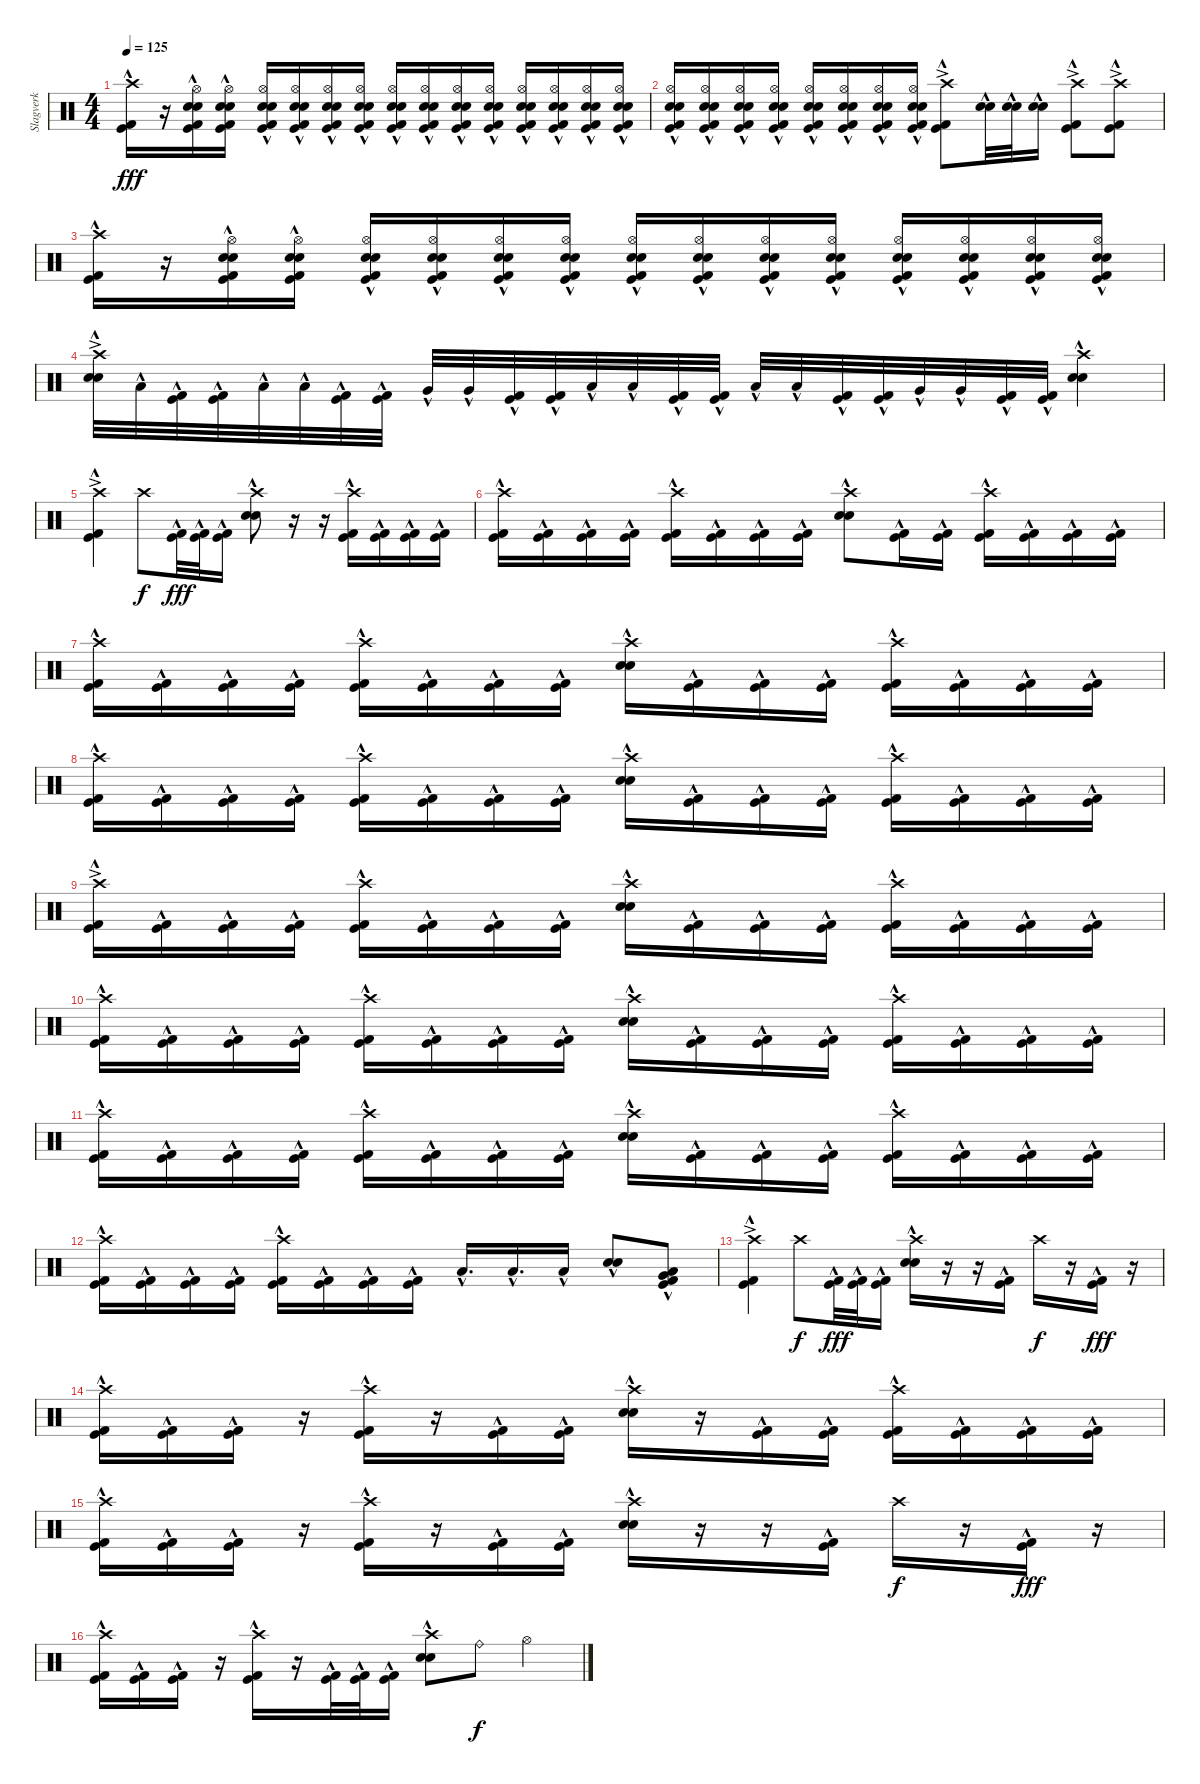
\track ("Slagverk" "Slagverk") {instrument percussion}
\staff {score}
\articulation defaults
\ts (4 4)
\tempo 125
\clef neutral
\ks c
("Crash high (hit)"{hac} "Kick (hit)"{hac} "Kick (hit) 2"{hac}).16{dy fff} r.16 ("Hi-Hat (open)" "Electric Snare (hit)"{hac} "Snare (hit) 2" "Kick (hit)"{hac} "Kick (hit) 2"{hac}).16 ("Hi-Hat (open)" "Electric Snare (hit)"{hac} "Snare (hit) 2" "Kick (hit)"{hac} "Kick (hit) 2"{hac}).16 ("Hi-Hat (open)" "Electric Snare (hit)"{hac} "Snare (hit) 2" "Kick (hit)"{hac} "Kick (hit) 2"{hac}).16 ("Hi-Hat (open)" "Electric Snare (hit)"{hac} "Snare (hit) 2" "Kick (hit)"{hac} "Kick (hit) 2"{hac}).16 ("Hi-Hat (open)" "Electric Snare (hit)"{hac} "Snare (hit) 2" "Kick (hit)"{hac} "Kick (hit) 2"{hac}).16 ("Hi-Hat (open)" "Electric Snare (hit)"{hac} "Snare (hit) 2" "Kick (hit)"{hac} "Kick (hit) 2"{hac}).16 ("Hi-Hat (open)" "Electric Snare (hit)"{hac} "Snare (hit) 2" "Kick (hit)"{hac} "Kick (hit) 2"{hac}).16 ("Hi-Hat (open)" "Electric Snare (hit)"{hac} "Snare (hit) 2" "Kick (hit)"{hac} "Kick (hit) 2"{hac}).16 ("Hi-Hat (open)" "Electric Snare (hit)"{hac} "Snare (hit) 2" "Kick (hit)"{hac} "Kick (hit) 2"{hac}).16 ("Hi-Hat (open)" "Electric Snare (hit)"{hac} "Snare (hit) 2" "Kick (hit)"{hac} "Kick (hit) 2"{hac}).16 ("Hi-Hat (open)" "Electric Snare (hit)"{hac} "Snare (hit) 2" "Kick (hit)"{hac} "Kick (hit) 2"{hac}).16 ("Hi-Hat (open)" "Electric Snare (hit)"{hac} "Snare (hit) 2" "Kick (hit)"{hac} "Kick (hit) 2"{hac}).16 ("Hi-Hat (open)" "Electric Snare (hit)"{hac} "Snare (hit) 2" "Kick (hit)"{hac} "Kick (hit) 2"{hac}).16 ("Hi-Hat (open)" "Electric Snare (hit)"{hac} "Snare (hit) 2" "Kick (hit)"{hac} "Kick (hit) 2"{hac}).16 |
("Hi-Hat (open)" "Electric Snare (hit)"{hac} "Snare (hit) 2" "Kick (hit)"{hac} "Kick (hit) 2"{hac}).16 ("Hi-Hat (open)" "Electric Snare (hit)"{hac} "Snare (hit) 2" "Kick (hit)"{hac} "Kick (hit) 2"{hac}).16 ("Hi-Hat (open)" "Electric Snare (hit)"{hac} "Snare (hit) 2" "Kick (hit)"{hac} "Kick (hit) 2"{hac}).16 ("Hi-Hat (open)" "Electric Snare (hit)"{hac} "Snare (hit) 2" "Kick (hit)"{hac} "Kick (hit) 2"{hac}).16 ("Hi-Hat (open)" "Electric Snare (hit)"{hac} "Snare (hit) 2" "Kick (hit)"{hac} "Kick (hit) 2"{hac}).16 ("Hi-Hat (open)" "Electric Snare (hit)"{hac} "Snare (hit) 2" "Kick (hit)"{hac} "Kick (hit) 2"{hac}).16 ("Hi-Hat (open)" "Electric Snare (hit)"{hac} "Snare (hit) 2" "Kick (hit)"{hac} "Kick (hit) 2"{hac}).16 ("Hi-Hat (open)" "Electric Snare (hit)"{hac} "Snare (hit) 2" "Kick (hit)"{hac} "Kick (hit) 2"{hac}).16 ("Crash high (hit)"{ac} "Kick (hit)"{hac} "Kick (hit) 2"{hac}).8 ("Electric Snare (hit)"{hac} "Snare (hit) 2").32 ("Electric Snare (hit)"{hac} "Snare (hit) 2").32 ("Electric Snare (hit)"{hac} "Snare (hit) 2").16 ("Crash high (hit)"{ac} "Kick (hit)"{hac} "Kick (hit) 2"{hac}).8 ("Crash high (hit)"{ac} "Kick (hit)"{hac} "Kick (hit) 2"{hac}).8 |
("Crash high (hit)"{hac} "Kick (hit)"{hac} "Kick (hit) 2"{hac}).16 r.16 ("Hi-Hat (open)" "Electric Snare (hit)"{hac} "Snare (hit) 2" "Kick (hit)"{hac} "Kick (hit) 2"{hac}).16 ("Hi-Hat (open)" "Electric Snare (hit)"{hac} "Snare (hit) 2" "Kick (hit)"{hac} "Kick (hit) 2"{hac}).16 ("Hi-Hat (open)" "Electric Snare (hit)"{hac} "Snare (hit) 2" "Kick (hit)"{hac} "Kick (hit) 2"{hac}).16 ("Hi-Hat (open)" "Electric Snare (hit)"{hac} "Snare (hit) 2" "Kick (hit)"{hac} "Kick (hit) 2"{hac}).16 ("Hi-Hat (open)" "Electric Snare (hit)"{hac} "Snare (hit) 2" "Kick (hit)"{hac} "Kick (hit) 2"{hac}).16 ("Hi-Hat (open)" "Electric Snare (hit)"{hac} "Snare (hit) 2" "Kick (hit)"{hac} "Kick (hit) 2"{hac}).16 ("Hi-Hat (open)" "Electric Snare (hit)"{hac} "Snare (hit) 2" "Kick (hit)"{hac} "Kick (hit) 2"{hac}).16 ("Hi-Hat (open)" "Electric Snare (hit)"{hac} "Snare (hit) 2" "Kick (hit)"{hac} "Kick (hit) 2"{hac}).16 ("Hi-Hat (open)" "Electric Snare (hit)"{hac} "Snare (hit) 2" "Kick (hit)"{hac} "Kick (hit) 2"{hac}).16 ("Hi-Hat (open)" "Electric Snare (hit)"{hac} "Snare (hit) 2" "Kick (hit)"{hac} "Kick (hit) 2"{hac}).16 ("Hi-Hat (open)" "Electric Snare (hit)"{hac} "Snare (hit) 2" "Kick (hit)"{hac} "Kick (hit) 2"{hac}).16 ("Hi-Hat (open)" "Electric Snare (hit)"{hac} "Snare (hit) 2" "Kick (hit)"{hac} "Kick (hit) 2"{hac}).16 ("Hi-Hat (open)" "Electric Snare (hit)"{hac} "Snare (hit) 2" "Kick (hit)"{hac} "Kick (hit) 2"{hac}).16 ("Hi-Hat (open)" "Electric Snare (hit)"{hac} "Snare (hit) 2" "Kick (hit)"{hac} "Kick (hit) 2"{hac}).16 |
("Crash high (hit)"{ac} "Electric Snare (hit)"{hac} "Snare (hit) 2").32 "Low Tom (hit)"{hac}.32 ("Kick (hit)"{hac} "Kick (hit) 2"{hac}).32 ("Kick (hit)"{hac} "Kick (hit) 2"{hac}).32 "Low Tom (hit)"{hac}.32 "Low Tom (hit)"{hac}.32 ("Kick (hit)"{hac} "Kick (hit) 2"{hac}).32 ("Kick (hit)"{hac} "Kick (hit) 2"{hac}).32 "Very Low Tom (hit)"{hac}.32 "Very Low Tom (hit)"{hac}.32 ("Kick (hit)"{hac} "Kick (hit) 2"{hac}).32 ("Kick (hit)"{hac} "Kick (hit) 2"{hac}).32 "Low Tom (hit)"{hac}.32 "Low Tom (hit)"{hac}.32 ("Kick (hit)"{hac} "Kick (hit) 2"{hac}).32 ("Kick (hit)"{hac} "Kick (hit) 2"{hac}).32 "Low Tom (hit)"{hac}.32 "Low Tom (hit)"{hac}.32 ("Kick (hit)"{hac} "Kick (hit) 2"{hac}).32 ("Kick (hit)"{hac} "Kick (hit) 2"{hac}).32 "Very Low Tom (hit)"{hac}.32 "Very Low Tom (hit)"{hac}.32 ("Kick (hit)"{hac} "Kick (hit) 2"{hac}).32 ("Kick (hit)"{hac} "Kick (hit) 2"{hac}).32 ("Crash high (hit)" "Electric Snare (hit)"{hac} "Snare (hit) 2").4 |
("Crash high (hit)"{ac} "Kick (hit)"{hac} "Kick (hit) 2"{hac}).4 "Crash high (hit)".8{dy f} ("Kick (hit)"{hac} "Kick (hit) 2"{hac}).32{dy fff} ("Kick (hit)"{hac} "Kick (hit) 2"{hac}).32 ("Kick (hit)"{hac} "Kick (hit) 2"{hac}).16 ("Crash high (hit)" "Electric Snare (hit)"{hac} "Snare (hit) 2").8 r.16 r.16 ("Crash high (hit)" "Kick (hit)"{hac} "Kick (hit) 2"{hac}).16 ("Kick (hit)"{hac} "Kick (hit) 2"{hac}).16 ("Kick (hit)"{hac} "Kick (hit) 2"{hac}).16 ("Kick (hit)"{hac} "Kick (hit) 2"{hac}).16 |
("Crash high (hit)" "Kick (hit)"{hac} "Kick (hit) 2"{hac}).16 ("Kick (hit)"{hac} "Kick (hit) 2"{hac}).16 ("Kick (hit)"{hac} "Kick (hit) 2"{hac}).16 ("Kick (hit)"{hac} "Kick (hit) 2"{hac}).16 ("Crash high (hit)" "Kick (hit)"{hac} "Kick (hit) 2"{hac}).16 ("Kick (hit)"{hac} "Kick (hit) 2"{hac}).16 ("Kick (hit)"{hac} "Kick (hit) 2"{hac}).16 ("Kick (hit)"{hac} "Kick (hit) 2"{hac}).16 ("Crash high (hit)" "Electric Snare (hit)"{hac} "Snare (hit) 2").8 ("Kick (hit)"{hac} "Kick (hit) 2"{hac}).16 ("Kick (hit)"{hac} "Kick (hit) 2"{hac}).16 ("Crash high (hit)" "Kick (hit)"{hac} "Kick (hit) 2"{hac}).16 ("Kick (hit)"{hac} "Kick (hit) 2"{hac}).16 ("Kick (hit)"{hac} "Kick (hit) 2"{hac}).16 ("Kick (hit)"{hac} "Kick (hit) 2"{hac}).16 |
("Crash high (hit)" "Kick (hit)"{hac} "Kick (hit) 2"{hac}).16 ("Kick (hit)"{hac} "Kick (hit) 2"{hac}).16 ("Kick (hit)"{hac} "Kick (hit) 2"{hac}).16 ("Kick (hit)"{hac} "Kick (hit) 2"{hac}).16 ("Crash high (hit)" "Kick (hit)"{hac} "Kick (hit) 2"{hac}).16 ("Kick (hit)"{hac} "Kick (hit) 2"{hac}).16 ("Kick (hit)"{hac} "Kick (hit) 2"{hac}).16 ("Kick (hit)"{hac} "Kick (hit) 2"{hac}).16 ("Crash high (hit)" "Electric Snare (hit)"{hac} "Snare (hit) 2").16 ("Kick (hit)"{hac} "Kick (hit) 2"{hac}).16 ("Kick (hit)"{hac} "Kick (hit) 2"{hac}).16 ("Kick (hit)"{hac} "Kick (hit) 2"{hac}).16 ("Crash high (hit)" "Kick (hit)"{hac} "Kick (hit) 2"{hac}).16 ("Kick (hit)"{hac} "Kick (hit) 2"{hac}).16 ("Kick (hit)"{hac} "Kick (hit) 2"{hac}).16 ("Kick (hit)"{hac} "Kick (hit) 2"{hac}).16 |
("Crash high (hit)" "Kick (hit)"{hac} "Kick (hit) 2"{hac}).16 ("Kick (hit)"{hac} "Kick (hit) 2"{hac}).16 ("Kick (hit)"{hac} "Kick (hit) 2"{hac}).16 ("Kick (hit)"{hac} "Kick (hit) 2"{hac}).16 ("Crash high (hit)" "Kick (hit)"{hac} "Kick (hit) 2"{hac}).16 ("Kick (hit)"{hac} "Kick (hit) 2"{hac}).16 ("Kick (hit)"{hac} "Kick (hit) 2"{hac}).16 ("Kick (hit)"{hac} "Kick (hit) 2"{hac}).16 ("Crash high (hit)" "Electric Snare (hit)"{hac} "Snare (hit) 2").16 ("Kick (hit)"{hac} "Kick (hit) 2"{hac}).16 ("Kick (hit)"{hac} "Kick (hit) 2"{hac}).16 ("Kick (hit)"{hac} "Kick (hit) 2"{hac}).16 ("Crash high (hit)" "Kick (hit)"{hac} "Kick (hit) 2"{hac}).16 ("Kick (hit)"{hac} "Kick (hit) 2"{hac}).16 ("Kick (hit)"{hac} "Kick (hit) 2"{hac}).16 ("Kick (hit)"{hac} "Kick (hit) 2"{hac}).16 |
("Crash high (hit)"{ac} "Kick (hit)"{hac} "Kick (hit) 2"{hac}).16 ("Kick (hit)"{hac} "Kick (hit) 2"{hac}).16 ("Kick (hit)"{hac} "Kick (hit) 2"{hac}).16 ("Kick (hit)"{hac} "Kick (hit) 2"{hac}).16 ("Crash high (hit)" "Kick (hit)"{hac} "Kick (hit) 2"{hac}).16 ("Kick (hit)"{hac} "Kick (hit) 2"{hac}).16 ("Kick (hit)"{hac} "Kick (hit) 2"{hac}).16 ("Kick (hit)"{hac} "Kick (hit) 2"{hac}).16 ("Crash high (hit)" "Electric Snare (hit)"{hac} "Snare (hit) 2").16 ("Kick (hit)"{hac} "Kick (hit) 2"{hac}).16 ("Kick (hit)"{hac} "Kick (hit) 2"{hac}).16 ("Kick (hit)"{hac} "Kick (hit) 2"{hac}).16 ("Crash high (hit)" "Kick (hit)"{hac} "Kick (hit) 2"{hac}).16 ("Kick (hit)"{hac} "Kick (hit) 2"{hac}).16 ("Kick (hit)"{hac} "Kick (hit) 2"{hac}).16 ("Kick (hit)"{hac} "Kick (hit) 2"{hac}).16 |
("Crash high (hit)" "Kick (hit)"{hac} "Kick (hit) 2"{hac}).16 ("Kick (hit)"{hac} "Kick (hit) 2"{hac}).16 ("Kick (hit)"{hac} "Kick (hit) 2"{hac}).16 ("Kick (hit)"{hac} "Kick (hit) 2"{hac}).16 ("Crash high (hit)" "Kick (hit)"{hac} "Kick (hit) 2"{hac}).16 ("Kick (hit)"{hac} "Kick (hit) 2"{hac}).16 ("Kick (hit)"{hac} "Kick (hit) 2"{hac}).16 ("Kick (hit)"{hac} "Kick (hit) 2"{hac}).16 ("Crash high (hit)" "Electric Snare (hit)"{hac} "Snare (hit) 2").16 ("Kick (hit)"{hac} "Kick (hit) 2"{hac}).16 ("Kick (hit)"{hac} "Kick (hit) 2"{hac}).16 ("Kick (hit)"{hac} "Kick (hit) 2"{hac}).16 ("Crash high (hit)" "Kick (hit)"{hac} "Kick (hit) 2"{hac}).16 ("Kick (hit)"{hac} "Kick (hit) 2"{hac}).16 ("Kick (hit)"{hac} "Kick (hit) 2"{hac}).16 ("Kick (hit)"{hac} "Kick (hit) 2"{hac}).16 |
("Crash high (hit)" "Kick (hit)"{hac} "Kick (hit) 2"{hac}).16 ("Kick (hit)"{hac} "Kick (hit) 2"{hac}).16 ("Kick (hit)"{hac} "Kick (hit) 2"{hac}).16 ("Kick (hit)"{hac} "Kick (hit) 2"{hac}).16 ("Crash high (hit)" "Kick (hit)"{hac} "Kick (hit) 2"{hac}).16 ("Kick (hit)"{hac} "Kick (hit) 2"{hac}).16 ("Kick (hit)"{hac} "Kick (hit) 2"{hac}).16 ("Kick (hit)"{hac} "Kick (hit) 2"{hac}).16 ("Crash high (hit)" "Electric Snare (hit)"{hac} "Snare (hit) 2").16 ("Kick (hit)"{hac} "Kick (hit) 2"{hac}).16 ("Kick (hit)"{hac} "Kick (hit) 2"{hac}).16 ("Kick (hit)"{hac} "Kick (hit) 2"{hac}).16 ("Crash high (hit)" "Kick (hit)"{hac} "Kick (hit) 2"{hac}).16 ("Kick (hit)"{hac} "Kick (hit) 2"{hac}).16 ("Kick (hit)"{hac} "Kick (hit) 2"{hac}).16 ("Kick (hit)"{hac} "Kick (hit) 2"{hac}).16 |
("Crash high (hit)" "Kick (hit)"{hac} "Kick (hit) 2"{hac}).16 ("Kick (hit)"{hac} "Kick (hit) 2"{hac}).16 ("Kick (hit)"{hac} "Kick (hit) 2"{hac}).16 ("Kick (hit)"{hac} "Kick (hit) 2"{hac}).16 ("Crash high (hit)" "Kick (hit)"{hac} "Kick (hit) 2"{hac}).16 ("Kick (hit)"{hac} "Kick (hit) 2"{hac}).16 ("Kick (hit)"{hac} "Kick (hit) 2"{hac}).16 ("Kick (hit)"{hac} "Kick (hit) 2"{hac}).16 "Low Tom (hit)"{hac}.16{d} "Low Tom (hit)"{hac}.16{d} "Low Tom (hit)"{hac}.16 ("Electric Snare (hit)"{hac} "Snare (hit) 2").8 ("Very Low Tom (hit)"{hac} "Low Floor Tom (hit)"{hac} "Kick (hit)"{hac} "Kick (hit) 2"{hac}).8 |
("Crash high (hit)"{ac} "Kick (hit)"{hac} "Kick (hit) 2"{hac}).4 "Crash high (hit)".8{dy f} ("Kick (hit)"{hac} "Kick (hit) 2"{hac}).32{dy fff} ("Kick (hit)"{hac} "Kick (hit) 2"{hac}).32 ("Kick (hit)"{hac} "Kick (hit) 2"{hac}).16 ("Crash high (hit)" "Electric Snare (hit)"{hac} "Snare (hit) 2").16 r.16 r.16 ("Kick (hit)"{hac} "Kick (hit) 2"{hac}).16 "Crash high (hit)".16{dy f} r.16 ("Kick (hit)"{hac} "Kick (hit) 2"{hac}).16{dy fff} r.16 |
("Crash high (hit)" "Kick (hit)"{hac} "Kick (hit) 2"{hac}).16 ("Kick (hit)"{hac} "Kick (hit) 2"{hac}).16 ("Kick (hit)"{hac} "Kick (hit) 2"{hac}).16 r.16 ("Crash high (hit)" "Kick (hit)"{hac} "Kick (hit) 2"{hac}).16 r.16 ("Kick (hit)"{hac} "Kick (hit) 2"{hac}).16 ("Kick (hit)"{hac} "Kick (hit) 2"{hac}).16 ("Crash high (hit)" "Electric Snare (hit)"{hac} "Snare (hit) 2").16 r.16 ("Kick (hit)"{hac} "Kick (hit) 2"{hac}).16 ("Kick (hit)"{hac} "Kick (hit) 2"{hac}).16 ("Crash high (hit)" "Kick (hit)"{hac} "Kick (hit) 2"{hac}).16 ("Kick (hit)"{hac} "Kick (hit) 2"{hac}).16 ("Kick (hit)"{hac} "Kick (hit) 2"{hac}).16 ("Kick (hit)"{hac} "Kick (hit) 2"{hac}).16 |
("Crash high (hit)" "Kick (hit)"{hac} "Kick (hit) 2"{hac}).16 ("Kick (hit)"{hac} "Kick (hit) 2"{hac}).16 ("Kick (hit)"{hac} "Kick (hit) 2"{hac}).16 r.16 ("Crash high (hit)" "Kick (hit)"{hac} "Kick (hit) 2"{hac}).16 r.16 ("Kick (hit)"{hac} "Kick (hit) 2"{hac}).16 ("Kick (hit)"{hac} "Kick (hit) 2"{hac}).16 ("Crash high (hit)" "Electric Snare (hit)"{hac} "Snare (hit) 2").16 r.16 r.16 ("Kick (hit)"{hac} "Kick (hit) 2"{hac}).16 "Crash high (hit)".16{dy f} r.16 ("Kick (hit)"{hac} "Kick (hit) 2"{hac}).16{dy fff} r.16 |
("Crash high (hit)" "Kick (hit)"{hac} "Kick (hit) 2"{hac}).16 ("Kick (hit)"{hac} "Kick (hit) 2"{hac}).16 ("Kick (hit)"{hac} "Kick (hit) 2"{hac}).16 r.16 ("Crash high (hit)" "Kick (hit)"{hac} "Kick (hit) 2"{hac}).16 r.16 ("Kick (hit)"{hac} "Kick (hit) 2"{hac}).32 ("Kick (hit)"{hac} "Kick (hit) 2"{hac}).32 ("Kick (hit)"{hac} "Kick (hit) 2"{hac}).16 ("Crash high (hit)" "Electric Snare (hit)"{hac} "Snare (hit) 2").8 "Ride (bell)".8{dy f} "Hi-Hat (open)".4
